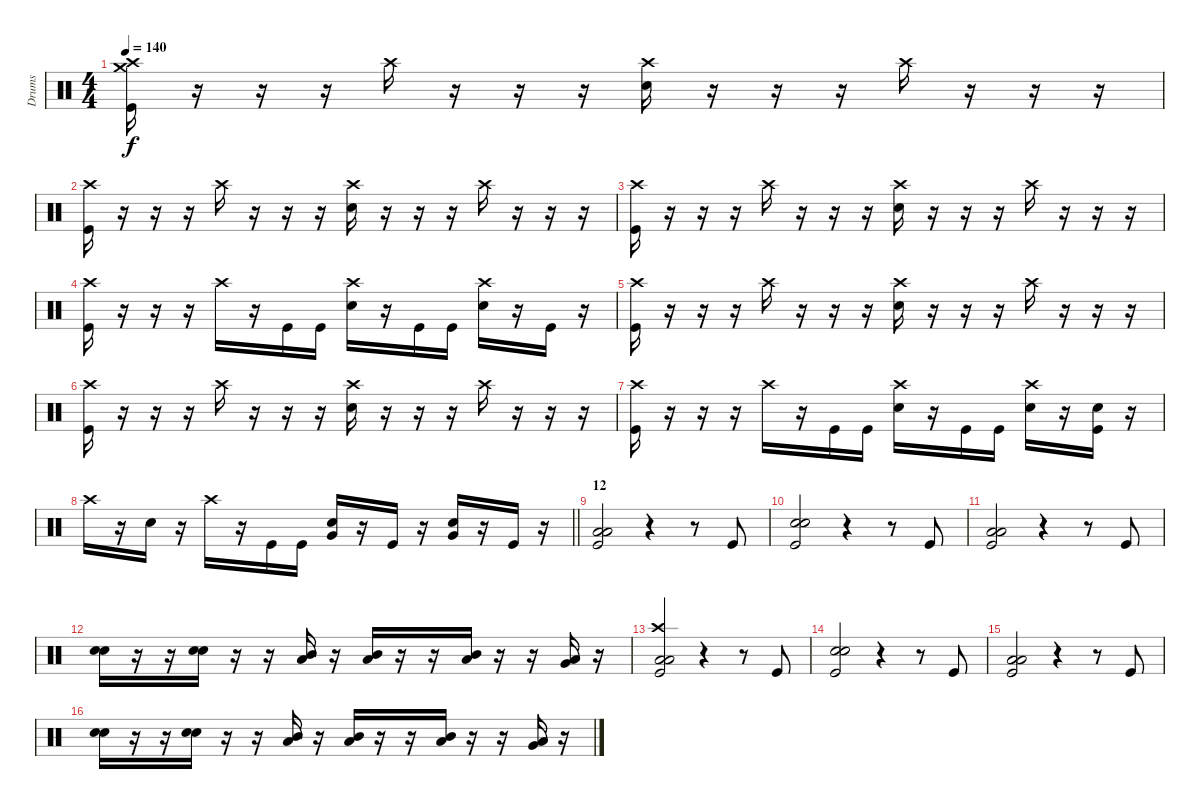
\track ("Drums" "Drums") {instrument percussion}
\staff {score}
\articulation defaults
\ts (4 4)
\tempo 140
\clef neutral
\ks c
("Kick (hit)" "Crash high (hit)" "Crash medium (hit)").16{dy f} r.16 r.16 r.16 "Crash high (hit)".16 r.16 r.16 r.16 ("Snare (hit) 2" "Crash high (hit)").16 r.16 r.16 r.16 "Crash high (hit)".16 r.16 r.16 r.16 |
("Kick (hit)" "Crash high (hit)").16 r.16 r.16 r.16 "Crash high (hit)".16 r.16 r.16 r.16 ("Snare (hit) 2" "Crash high (hit)").16 r.16 r.16 r.16 "Crash high (hit)".16 r.16 r.16 r.16 |
("Kick (hit)" "Crash high (hit)").16 r.16 r.16 r.16 "Crash high (hit)".16 r.16 r.16 r.16 ("Snare (hit) 2" "Crash high (hit)").16 r.16 r.16 r.16 "Crash high (hit)".16 r.16 r.16 r.16 |
("Kick (hit)" "Crash high (hit)").16 r.16 r.16 r.16 "Crash high (hit)".16 r.16 "Kick (hit)".16 "Kick (hit)".16 ("Snare (hit) 2" "Crash high (hit)").16 r.16 "Kick (hit)".16 "Kick (hit)".16 ("Snare (hit) 2" "Crash high (hit)").16 r.16 "Kick (hit)".16 r.16 |
("Kick (hit)" "Crash high (hit)").16 r.16 r.16 r.16 "Crash high (hit)".16 r.16 r.16 r.16 ("Snare (hit) 2" "Crash high (hit)").16 r.16 r.16 r.16 "Crash high (hit)".16 r.16 r.16 r.16 |
("Kick (hit)" "Crash high (hit)").16 r.16 r.16 r.16 "Crash high (hit)".16 r.16 r.16 r.16 ("Snare (hit) 2" "Crash high (hit)").16 r.16 r.16 r.16 "Crash high (hit)".16 r.16 r.16 r.16 |
("Kick (hit)" "Crash high (hit)").16 r.16 r.16 r.16 "Crash high (hit)".16 r.16 "Kick (hit)".16 "Kick (hit)".16 ("Snare (hit) 2" "Crash high (hit)").16 r.16 "Kick (hit)".16 "Kick (hit)".16 ("Snare (hit) 2" "Crash high (hit)").16 r.16 ("Kick (hit)" "Snare (hit) 2").16 r.16 |
\barLineRight lightlight "Crash high (hit)".16
r.16 "Snare (hit) 2".16 r.16 "Crash high (hit)".16 r.16 "Kick (hit)".16 "Kick (hit)".16 ("Snare (hit) 2" "Very Low Tom (hit)").16 r.16 "Kick (hit)".16 r.16 ("Snare (hit) 2" "Very Low Tom (hit)").16 r.16 "Kick (hit)".16 r.16 |
\section ("" "12")
("Kick (hit)" "Low Tom (hit)" "Low Floor Tom (hit)").2 r.4 r.8 "Kick (hit)".8 |
("Kick (hit)" "Snare (hit) 2" "Snare (hit) 2").2 r.4 r.8 "Kick (hit)".8 |
("Kick (hit)" "Low Tom (hit)" "Low Floor Tom (hit)").2 r.4 r.8 "Kick (hit)".8 |
("Snare (hit) 2" "Snare (hit) 2").16 r.16 r.16 ("Snare (hit) 2" "Snare (hit) 2").16 r.16 r.16 ("Mid Tom (hit)" "Low Tom (hit)").16 r.16 ("Mid Tom (hit)" "Low Tom (hit)").16 r.16 r.16 ("Mid Tom (hit)" "Low Tom (hit)").16 r.16 r.16 ("Low Tom (hit)" "Very Low Tom (hit)").16 r.16 |
("Kick (hit)" "Low Tom (hit)" "Low Floor Tom (hit)" "Crash high (hit)").2 r.4 r.8 "Kick (hit)".8 |
("Kick (hit)" "Snare (hit) 2" "Snare (hit) 2").2 r.4 r.8 "Kick (hit)".8 |
("Kick (hit)" "Low Tom (hit)" "Low Floor Tom (hit)").2 r.4 r.8 "Kick (hit)".8 |
("Snare (hit) 2" "Snare (hit) 2").16 r.16 r.16 ("Snare (hit) 2" "Snare (hit) 2").16 r.16 r.16 ("Mid Tom (hit)" "Low Tom (hit)").16 r.16 ("Mid Tom (hit)" "Low Tom (hit)").16 r.16 r.16 ("Mid Tom (hit)" "Low Tom (hit)").16 r.16 r.16 ("Low Tom (hit)" "Very Low Tom (hit)").16 r.16
